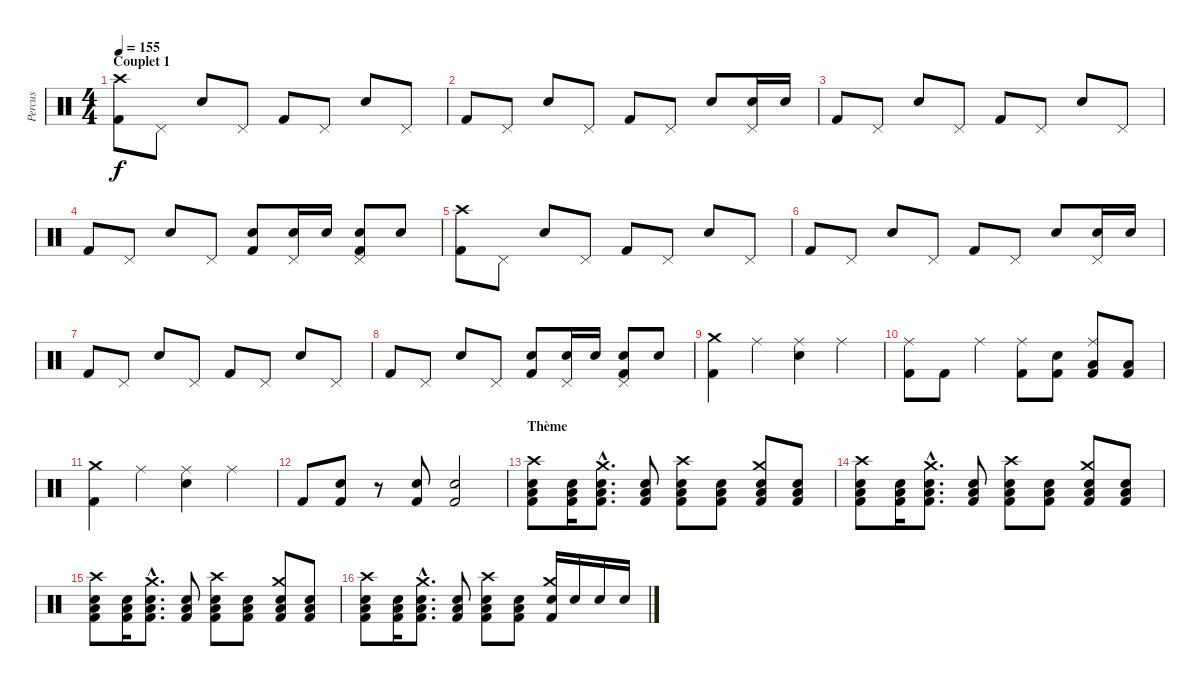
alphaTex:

\track ("Percus" "Percus") {instrument percussion}
\staff {score}
\articulation defaults
\ts (4 4)
\section ("" "Couplet 1")
\tempo 155
\clef neutral
\ks c
("Crash high (hit)" "Kick (hit) 2").8{dy f} "Pedal Hi-Hat (hit)".8 "Snare (hit) 2".8 "Pedal Hi-Hat (hit)".8 "Kick (hit) 2".8 "Pedal Hi-Hat (hit)".8 "Snare (hit) 2".8 "Pedal Hi-Hat (hit)".8 |
"Kick (hit) 2".8 "Pedal Hi-Hat (hit)".8 "Snare (hit) 2".8 "Pedal Hi-Hat (hit)".8 "Kick (hit) 2".8 "Pedal Hi-Hat (hit)".8 "Snare (hit) 2".8 ("Pedal Hi-Hat (hit)" "Snare (hit) 2").16 "Snare (hit) 2".16 |
"Kick (hit) 2".8 "Pedal Hi-Hat (hit)".8 "Snare (hit) 2".8 "Pedal Hi-Hat (hit)".8 "Kick (hit) 2".8 "Pedal Hi-Hat (hit)".8 "Snare (hit) 2".8 "Pedal Hi-Hat (hit)".8 |
"Kick (hit) 2".8 "Pedal Hi-Hat (hit)".8 "Snare (hit) 2".8 "Pedal Hi-Hat (hit)".8 ("Snare (hit) 2" "Kick (hit) 2").8 ("Pedal Hi-Hat (hit)" "Snare (hit) 2").16 "Snare (hit) 2".16 ("Pedal Hi-Hat (hit)" "Snare (hit) 2" "Kick (hit) 2").8 "Snare (hit) 2".8 |
("Crash high (hit)" "Kick (hit) 2").8 "Pedal Hi-Hat (hit)".8 "Snare (hit) 2".8 "Pedal Hi-Hat (hit)".8 "Kick (hit) 2".8 "Pedal Hi-Hat (hit)".8 "Snare (hit) 2".8 "Pedal Hi-Hat (hit)".8 |
"Kick (hit) 2".8 "Pedal Hi-Hat (hit)".8 "Snare (hit) 2".8 "Pedal Hi-Hat (hit)".8 "Kick (hit) 2".8 "Pedal Hi-Hat (hit)".8 "Snare (hit) 2".8 ("Pedal Hi-Hat (hit)" "Snare (hit) 2").16 "Snare (hit) 2".16 |
"Kick (hit) 2".8 "Pedal Hi-Hat (hit)".8 "Snare (hit) 2".8 "Pedal Hi-Hat (hit)".8 "Kick (hit) 2".8 "Pedal Hi-Hat (hit)".8 "Snare (hit) 2".8 "Pedal Hi-Hat (hit)".8 |
"Kick (hit) 2".8 "Pedal Hi-Hat (hit)".8 "Snare (hit) 2".8 "Pedal Hi-Hat (hit)".8 ("Snare (hit) 2" "Kick (hit) 2").8 ("Pedal Hi-Hat (hit)" "Snare (hit) 2").16 "Snare (hit) 2".16 ("Pedal Hi-Hat (hit)" "Snare (hit) 2" "Kick (hit) 2").8 "Snare (hit) 2".8 |
("Crash medium (hit)" "Kick (hit) 2").4 "Ride (middle)".4 ("Ride (middle)" "Snare (hit) 2").4 "Ride (middle)".4 |
("Ride (middle)" "Kick (hit) 2").8 "Kick (hit) 2".8 "Ride (middle)".4 ("Ride (middle)" "Kick (hit) 2").8 ("Snare (hit) 2" "Kick (hit) 2").8 ("Ride (middle)" "Low Tom (hit)" "Kick (hit) 2").8 ("Low Floor Tom (hit)" "Kick (hit) 2").8 |
("Crash medium (hit)" "Kick (hit) 2").4 "Ride (middle)".4 ("Ride (middle)" "Snare (hit) 2").4 "Ride (middle)".4 |
"Kick (hit) 2".8 ("Snare (hit) 2" "Kick (hit) 2").8 r.8 ("Snare (hit) 2" "Kick (hit) 2").8 ("Snare (hit) 2" "Kick (hit) 2").2 |
\section ("" "Thème")
("Crash high (hit)" "Electric Snare (hit)" "Low Floor Tom (hit)" "Kick (hit) 2").8 ("Electric Snare (hit)" "Low Tom (hit)" "Kick (hit) 2").16 ("Crash medium (hit)"{hac} "Electric Snare (hit)"{hac} "Low Floor Tom (hit)"{hac} "Kick (hit) 2"{hac}).8{d} ("Electric Snare (hit)" "Low Tom (hit)" "Kick (hit) 2").8 ("Crash high (hit)" "Electric Snare (hit)" "Low Floor Tom (hit)" "Kick (hit) 2").8 ("Electric Snare (hit)" "Low Tom (hit)" "Kick (hit) 2").8 ("Crash medium (hit)" "Electric Snare (hit)" "Low Floor Tom (hit)" "Kick (hit) 2").8 ("Electric Snare (hit)" "Low Tom (hit)" "Kick (hit) 2").8 |
("Crash high (hit)" "Electric Snare (hit)" "Low Floor Tom (hit)" "Kick (hit) 2").8 ("Electric Snare (hit)" "Low Tom (hit)" "Kick (hit) 2").16 ("Crash medium (hit)"{hac} "Electric Snare (hit)"{hac} "Low Floor Tom (hit)"{hac} "Kick (hit) 2"{hac}).8{d} ("Electric Snare (hit)" "Low Tom (hit)" "Kick (hit) 2").8 ("Crash high (hit)" "Electric Snare (hit)" "Low Floor Tom (hit)" "Kick (hit) 2").8 ("Electric Snare (hit)" "Low Tom (hit)" "Kick (hit) 2").8 ("Crash medium (hit)" "Electric Snare (hit)" "Low Floor Tom (hit)" "Kick (hit) 2").8 ("Electric Snare (hit)" "Low Tom (hit)" "Kick (hit) 2").8 |
("Crash high (hit)" "Electric Snare (hit)" "Low Floor Tom (hit)" "Kick (hit) 2").8 ("Electric Snare (hit)" "Low Tom (hit)" "Kick (hit) 2").16 ("Crash medium (hit)"{hac} "Electric Snare (hit)"{hac} "Low Floor Tom (hit)"{hac} "Kick (hit) 2"{hac}).8{d} ("Electric Snare (hit)" "Low Tom (hit)" "Kick (hit) 2").8 ("Crash high (hit)" "Electric Snare (hit)" "Low Floor Tom (hit)" "Kick (hit) 2").8 ("Electric Snare (hit)" "Low Tom (hit)" "Kick (hit) 2").8 ("Crash medium (hit)" "Electric Snare (hit)" "Low Floor Tom (hit)" "Kick (hit) 2").8 ("Electric Snare (hit)" "Low Tom (hit)" "Kick (hit) 2").8 |
("Crash high (hit)" "Electric Snare (hit)" "Low Floor Tom (hit)" "Kick (hit) 2").8 ("Electric Snare (hit)" "Low Tom (hit)" "Kick (hit) 2").16 ("Crash medium (hit)"{hac} "Electric Snare (hit)"{hac} "Low Floor Tom (hit)"{hac} "Kick (hit) 2"{hac}).8{d} ("Electric Snare (hit)" "Low Tom (hit)" "Kick (hit) 2").8 ("Crash high (hit)" "Electric Snare (hit)" "Low Floor Tom (hit)" "Kick (hit) 2").8 ("Electric Snare (hit)" "Low Tom (hit)" "Kick (hit) 2").8 ("Crash medium (hit)" "Electric Snare (hit)" "Kick (hit) 2").16 "Electric Snare (hit)".16 "Electric Snare (hit)".16 "Electric Snare (hit)".16
